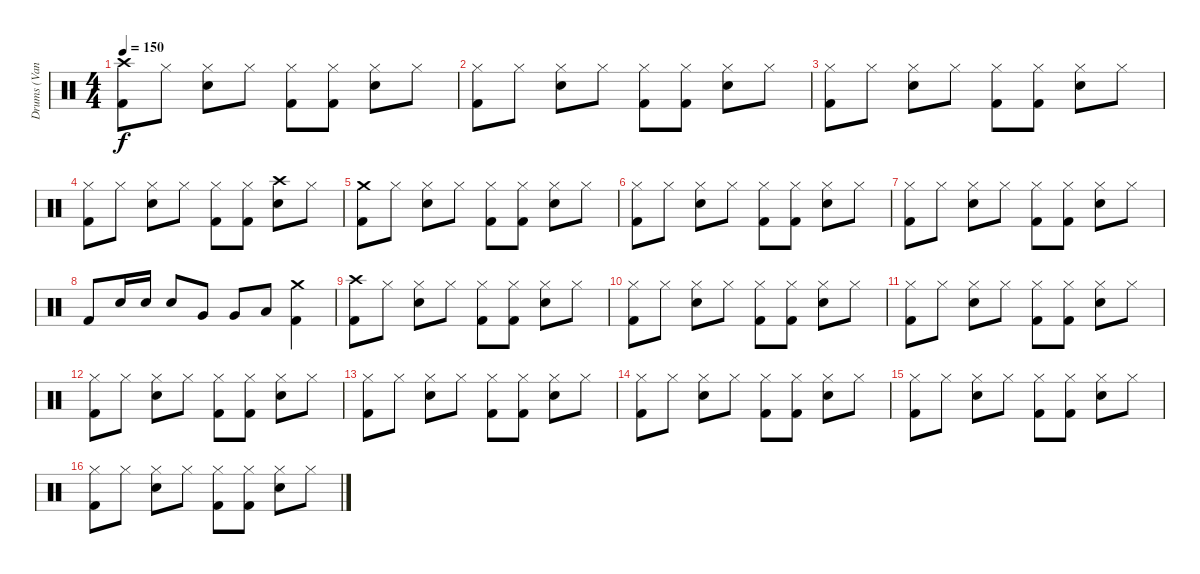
\track ("Drums (Vandel)" "Drums (Van") {instrument percussion}
\staff {score}
\articulation defaults
\ts (4 4)
\tempo 150
\clef neutral
\ks c
("Crash high (hit)" "Kick (hit) 2").8{dy f} "Hi-Hat (closed)".8 ("Hi-Hat (closed)" "Snare (hit) 2").8 "Hi-Hat (closed)".8 ("Hi-Hat (closed)" "Kick (hit) 2").8 ("Hi-Hat (closed)" "Kick (hit) 2").8 ("Hi-Hat (closed)" "Snare (hit) 2").8 "Hi-Hat (closed)".8 |
("Hi-Hat (closed)" "Kick (hit) 2").8 "Hi-Hat (closed)".8 ("Hi-Hat (closed)" "Snare (hit) 2").8 "Hi-Hat (closed)".8 ("Hi-Hat (closed)" "Kick (hit) 2").8 ("Hi-Hat (closed)" "Kick (hit) 2").8 ("Hi-Hat (closed)" "Snare (hit) 2").8 "Hi-Hat (closed)".8 |
("Hi-Hat (closed)" "Kick (hit) 2").8 "Hi-Hat (closed)".8 ("Hi-Hat (closed)" "Snare (hit) 2").8 "Hi-Hat (closed)".8 ("Hi-Hat (closed)" "Kick (hit) 2").8 ("Hi-Hat (closed)" "Kick (hit) 2").8 ("Hi-Hat (closed)" "Snare (hit) 2").8 "Hi-Hat (closed)".8 |
("Hi-Hat (closed)" "Kick (hit) 2").8 "Hi-Hat (closed)".8 ("Hi-Hat (closed)" "Snare (hit) 2").8 "Hi-Hat (closed)".8 ("Hi-Hat (closed)" "Kick (hit) 2").8 ("Hi-Hat (closed)" "Kick (hit) 2").8 ("Crash high (hit)" "Snare (hit) 2").8 "Hi-Hat (closed)".8 |
("Crash medium (hit)" "Kick (hit) 2").8 "Hi-Hat (closed)".8 ("Hi-Hat (closed)" "Snare (hit) 2").8 "Hi-Hat (closed)".8 ("Hi-Hat (closed)" "Kick (hit) 2").8 ("Hi-Hat (closed)" "Kick (hit) 2").8 ("Hi-Hat (closed)" "Snare (hit) 2").8 "Hi-Hat (closed)".8 |
("Hi-Hat (closed)" "Kick (hit) 2").8 "Hi-Hat (closed)".8 ("Hi-Hat (closed)" "Snare (hit) 2").8 "Hi-Hat (closed)".8 ("Hi-Hat (closed)" "Kick (hit) 2").8 ("Hi-Hat (closed)" "Kick (hit) 2").8 ("Hi-Hat (closed)" "Snare (hit) 2").8 "Hi-Hat (closed)".8 |
("Hi-Hat (closed)" "Kick (hit) 2").8 "Hi-Hat (closed)".8 ("Hi-Hat (closed)" "Snare (hit) 2").8 "Hi-Hat (closed)".8 ("Hi-Hat (closed)" "Kick (hit) 2").8 ("Hi-Hat (closed)" "Kick (hit) 2").8 ("Hi-Hat (closed)" "Snare (hit) 2").8 "Hi-Hat (closed)".8 |
"Kick (hit) 2".8 "Snare (hit) 2".16 "Snare (hit) 2".16 "Snare (hit) 2".8 "Very Low Tom (hit)".8 "Very Low Tom (hit)".8 "Low Floor Tom (hit)".8 ("Crash medium (hit)" "Kick (hit) 2").4 |
("Crash high (hit)" "Kick (hit) 2").8 "Hi-Hat (closed)".8 ("Hi-Hat (closed)" "Snare (hit) 2").8 "Hi-Hat (closed)".8 ("Hi-Hat (closed)" "Kick (hit) 2").8 ("Hi-Hat (closed)" "Kick (hit) 2").8 ("Hi-Hat (closed)" "Snare (hit) 2").8 "Hi-Hat (closed)".8 |
("Hi-Hat (closed)" "Kick (hit) 2").8 "Hi-Hat (closed)".8 ("Hi-Hat (closed)" "Snare (hit) 2").8 "Hi-Hat (closed)".8 ("Hi-Hat (closed)" "Kick (hit) 2").8 ("Hi-Hat (closed)" "Kick (hit) 2").8 ("Hi-Hat (closed)" "Snare (hit) 2").8 "Hi-Hat (closed)".8 |
("Hi-Hat (closed)" "Kick (hit) 2").8 "Hi-Hat (closed)".8 ("Hi-Hat (closed)" "Snare (hit) 2").8 "Hi-Hat (closed)".8 ("Hi-Hat (closed)" "Kick (hit) 2").8 ("Hi-Hat (closed)" "Kick (hit) 2").8 ("Hi-Hat (closed)" "Snare (hit) 2").8 "Hi-Hat (closed)".8 |
("Hi-Hat (closed)" "Kick (hit) 2").8 "Hi-Hat (closed)".8 ("Hi-Hat (closed)" "Snare (hit) 2").8 "Hi-Hat (closed)".8 ("Hi-Hat (closed)" "Kick (hit) 2").8 ("Hi-Hat (closed)" "Kick (hit) 2").8 ("Hi-Hat (closed)" "Snare (hit) 2").8 "Hi-Hat (closed)".8 |
("Hi-Hat (closed)" "Kick (hit) 2").8 "Hi-Hat (closed)".8 ("Hi-Hat (closed)" "Snare (hit) 2").8 "Hi-Hat (closed)".8 ("Hi-Hat (closed)" "Kick (hit) 2").8 ("Hi-Hat (closed)" "Kick (hit) 2").8 ("Hi-Hat (closed)" "Snare (hit) 2").8 "Hi-Hat (closed)".8 |
("Hi-Hat (closed)" "Kick (hit) 2").8 "Hi-Hat (closed)".8 ("Hi-Hat (closed)" "Snare (hit) 2").8 "Hi-Hat (closed)".8 ("Hi-Hat (closed)" "Kick (hit) 2").8 ("Hi-Hat (closed)" "Kick (hit) 2").8 ("Hi-Hat (closed)" "Snare (hit) 2").8 "Hi-Hat (closed)".8 |
("Hi-Hat (closed)" "Kick (hit) 2").8 "Hi-Hat (closed)".8 ("Hi-Hat (closed)" "Snare (hit) 2").8 "Hi-Hat (closed)".8 ("Hi-Hat (closed)" "Kick (hit) 2").8 ("Hi-Hat (closed)" "Kick (hit) 2").8 ("Hi-Hat (closed)" "Snare (hit) 2").8 "Hi-Hat (closed)".8 |
("Hi-Hat (closed)" "Kick (hit) 2").8 "Hi-Hat (closed)".8 ("Hi-Hat (closed)" "Snare (hit) 2").8 "Hi-Hat (closed)".8 ("Hi-Hat (closed)" "Kick (hit) 2").8 ("Hi-Hat (closed)" "Kick (hit) 2").8 ("Hi-Hat (closed)" "Snare (hit) 2").8 "Hi-Hat (closed)".8
